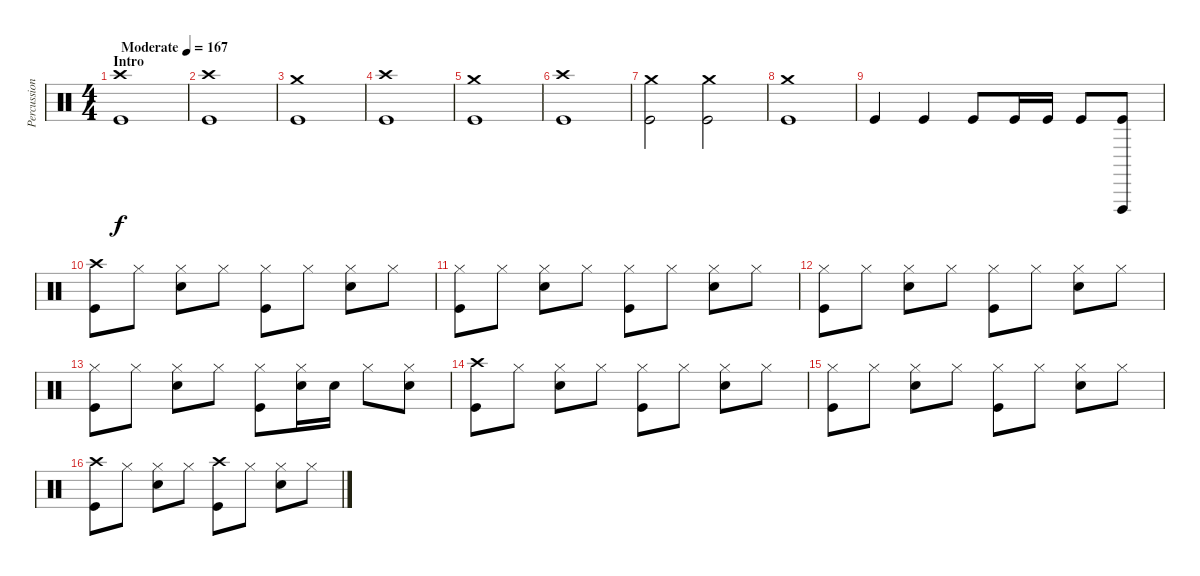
\track ("Percussion" "Percussion") {instrument percussion}
\staff {score}
\articulation defaults
\ts (4 4)
\section ("" "Intro")
\tempo (167 "Moderate")
\clef neutral
\ks c
("Crash high (hit)" "Kick (hit)").1{dy f} |
("Crash high (hit)" "Kick (hit)").1 |
("Crash medium (hit)" "Kick (hit)").1 |
("Crash high (hit)" "Kick (hit)").1 |
("Crash medium (hit)" "Kick (hit)").1 |
("Crash high (hit)" "Kick (hit)").1 |
("Crash medium (hit)" "Kick (hit)").2 ("Crash medium (hit)" "Kick (hit)").2 |
("Crash medium (hit)" "Kick (hit)").1 |
"Kick (hit)".4 "Kick (hit)".4 "Kick (hit)".8 "Kick (hit)".16 "Kick (hit)".16 "Kick (hit)".8 ("Vibraslap (hit)" "Kick (hit)").8 |
("Crash high (hit)" "Kick (hit)").8 "Hi-Hat (closed)".8 ("Hi-Hat (closed)" "Electric Snare (hit)").8 "Hi-Hat (closed)".8 ("Hi-Hat (closed)" "Kick (hit)").8 "Hi-Hat (closed)".8 ("Hi-Hat (closed)" "Electric Snare (hit)").8 "Hi-Hat (closed)".8 |
("Hi-Hat (closed)" "Kick (hit)").8 "Hi-Hat (closed)".8 ("Hi-Hat (closed)" "Electric Snare (hit)").8 "Hi-Hat (closed)".8 ("Hi-Hat (closed)" "Kick (hit)").8 "Hi-Hat (closed)".8 ("Hi-Hat (closed)" "Electric Snare (hit)").8 "Hi-Hat (closed)".8 |
("Hi-Hat (closed)" "Kick (hit)").8 "Hi-Hat (closed)".8 ("Hi-Hat (closed)" "Electric Snare (hit)").8 "Hi-Hat (closed)".8 ("Hi-Hat (closed)" "Kick (hit)").8 "Hi-Hat (closed)".8 ("Hi-Hat (closed)" "Electric Snare (hit)").8 "Hi-Hat (closed)".8 |
("Hi-Hat (closed)" "Kick (hit)").8 "Hi-Hat (closed)".8 ("Hi-Hat (closed)" "Electric Snare (hit)").8 "Hi-Hat (closed)".8 ("Hi-Hat (closed)" "Kick (hit)").8 ("Hi-Hat (closed)" "Electric Snare (hit)").16 "Electric Snare (hit)".16 "Hi-Hat (closed)".8 ("Hi-Hat (closed)" "Electric Snare (hit)").8 |
("Crash high (hit)" "Kick (hit)").8 "Hi-Hat (closed)".8 ("Hi-Hat (closed)" "Electric Snare (hit)").8 "Hi-Hat (closed)".8 ("Hi-Hat (closed)" "Kick (hit)").8 "Hi-Hat (closed)".8 ("Hi-Hat (closed)" "Electric Snare (hit)").8 "Hi-Hat (closed)".8 |
("Hi-Hat (closed)" "Kick (hit)").8 "Hi-Hat (closed)".8 ("Hi-Hat (closed)" "Electric Snare (hit)").8 "Hi-Hat (closed)".8 ("Hi-Hat (closed)" "Kick (hit)").8 "Hi-Hat (closed)".8 ("Hi-Hat (closed)" "Electric Snare (hit)").8 "Hi-Hat (closed)".8 |
("Crash high (hit)" "Kick (hit)").8 "Hi-Hat (closed)".8 ("Hi-Hat (closed)" "Electric Snare (hit)").8 "Hi-Hat (closed)".8 ("Crash high (hit)" "Kick (hit)").8 "Hi-Hat (closed)".8 ("Hi-Hat (closed)" "Electric Snare (hit)").8 "Hi-Hat (closed)".8
